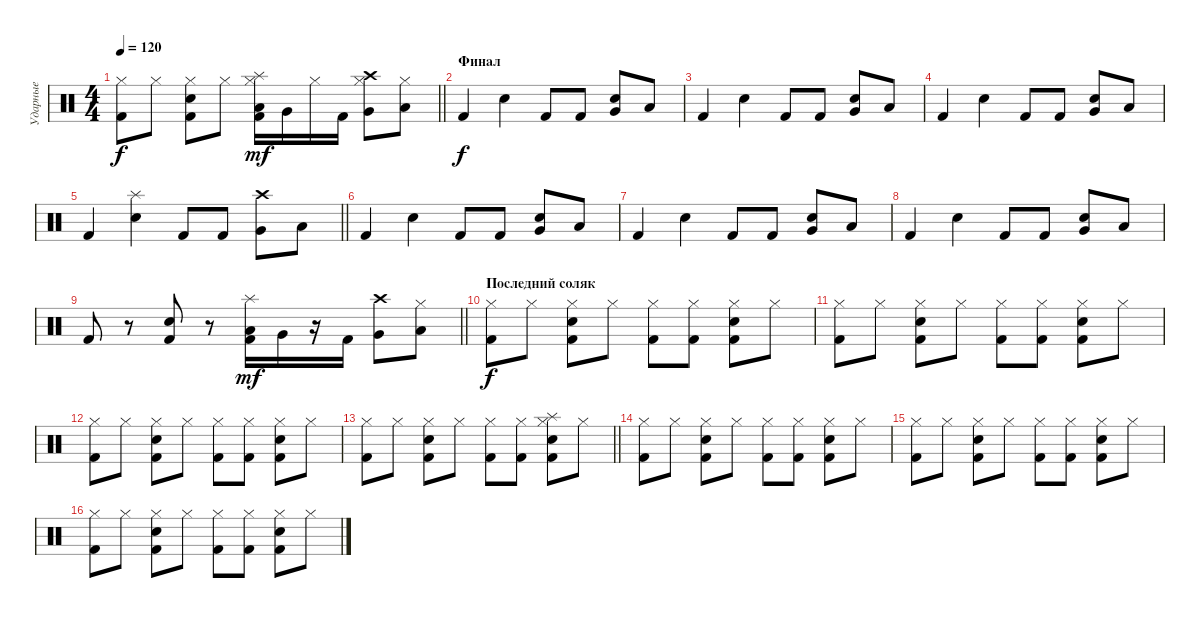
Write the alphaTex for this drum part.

\track ("Ударные" "Ударные") {instrument percussion}
\staff {score}
\articulation defaults
\ts (4 4)
\tempo 120
\clef neutral
\barLineRight lightlight
\ks c
("Hi-Hat (closed)" "Kick (hit) 2").8{dy f} "Hi-Hat (closed)".8 ("Hi-Hat (closed)" "Kick (hit) 2" "Electric Snare (hit)").8 "Hi-Hat (closed)".8 ("Low Tom (hit)" "Hi-Hat (closed)" "Kick (hit) 2" "Splash (hit)").16{dy mf} "Very Low Tom (hit)".16 "Hi-Hat (closed)".16 "Kick (hit) 2".16 ("Very Low Tom (hit)" "Hi-Hat (closed)" "Crash high (hit)").8 ("Low Floor Tom (hit)" "Hi-Hat (closed)").8 |
\section ("" "Финал")
"Kick (hit) 2".4{dy f} "Electric Snare (hit)".4 "Kick (hit) 2".8 "Kick (hit) 2".8 ("Electric Snare (hit)" "Very Low Tom (hit)").8 "Low Floor Tom (hit)".8 |
"Kick (hit) 2".4 "Electric Snare (hit)".4 "Kick (hit) 2".8 "Kick (hit) 2".8 ("Electric Snare (hit)" "Very Low Tom (hit)").8 "Low Floor Tom (hit)".8 |
"Kick (hit) 2".4 "Electric Snare (hit)".4 "Kick (hit) 2".8 "Kick (hit) 2".8 ("Electric Snare (hit)" "Very Low Tom (hit)").8 "Low Floor Tom (hit)".8 |
\barLineRight lightlight "Kick (hit) 2".4
("Electric Snare (hit)" "Splash (hit)").4 "Kick (hit) 2".8 "Kick (hit) 2".8 ("Very Low Tom (hit)" "Crash high (hit)").8 "Low Floor Tom (hit)".8 |
"Kick (hit) 2".4 "Electric Snare (hit)".4 "Kick (hit) 2".8 "Kick (hit) 2".8 ("Electric Snare (hit)" "Very Low Tom (hit)").8 "Low Floor Tom (hit)".8 |
"Kick (hit) 2".4 "Electric Snare (hit)".4 "Kick (hit) 2".8 "Kick (hit) 2".8 ("Electric Snare (hit)" "Very Low Tom (hit)").8 "Low Floor Tom (hit)".8 |
"Kick (hit) 2".4 "Electric Snare (hit)".4 "Kick (hit) 2".8 "Kick (hit) 2".8 ("Electric Snare (hit)" "Very Low Tom (hit)").8 "Low Floor Tom (hit)".8 |
\barLineRight lightlight "Kick (hit) 2".8
r.8 ("Kick (hit) 2" "Electric Snare (hit)").8 r.8 ("Low Tom (hit)" "Kick (hit) 2" "Splash (hit)").16{dy mf} "Very Low Tom (hit)".16 r.16 "Kick (hit) 2".16 ("Very Low Tom (hit)" "Crash high (hit)").8 ("Low Floor Tom (hit)" "Hi-Hat (closed)").8 |
\section ("" "Последний соляк")
("Hi-Hat (closed)" "Kick (hit) 2").8{dy f} "Hi-Hat (closed)".8 ("Hi-Hat (closed)" "Kick (hit) 2" "Electric Snare (hit)").8 "Hi-Hat (closed)".8 ("Hi-Hat (closed)" "Kick (hit) 2").8 ("Hi-Hat (closed)" "Kick (hit) 2").8 ("Hi-Hat (closed)" "Kick (hit) 2" "Electric Snare (hit)").8 "Hi-Hat (closed)".8 |
("Hi-Hat (closed)" "Kick (hit) 2").8 "Hi-Hat (closed)".8 ("Hi-Hat (closed)" "Kick (hit) 2" "Electric Snare (hit)").8 "Hi-Hat (closed)".8 ("Hi-Hat (closed)" "Kick (hit) 2").8 ("Hi-Hat (closed)" "Kick (hit) 2").8 ("Hi-Hat (closed)" "Kick (hit) 2" "Electric Snare (hit)").8 "Hi-Hat (closed)".8 |
("Hi-Hat (closed)" "Kick (hit) 2").8 "Hi-Hat (closed)".8 ("Hi-Hat (closed)" "Kick (hit) 2" "Electric Snare (hit)").8 "Hi-Hat (closed)".8 ("Hi-Hat (closed)" "Kick (hit) 2").8 ("Hi-Hat (closed)" "Kick (hit) 2").8 ("Hi-Hat (closed)" "Kick (hit) 2" "Electric Snare (hit)").8 "Hi-Hat (closed)".8 |
\barLineRight lightlight
("Hi-Hat (closed)" "Kick (hit) 2").8 "Hi-Hat (closed)".8 ("Hi-Hat (closed)" "Kick (hit) 2" "Electric Snare (hit)").8 "Hi-Hat (closed)".8 ("Hi-Hat (closed)" "Kick (hit) 2").8 ("Hi-Hat (closed)" "Kick (hit) 2").8 ("Hi-Hat (closed)" "Kick (hit) 2" "Electric Snare (hit)" "Splash (hit)").8 "Hi-Hat (closed)".8 |
("Hi-Hat (closed)" "Kick (hit) 2").8 "Hi-Hat (closed)".8 ("Hi-Hat (closed)" "Kick (hit) 2" "Electric Snare (hit)").8 "Hi-Hat (closed)".8 ("Hi-Hat (closed)" "Kick (hit) 2").8 ("Hi-Hat (closed)" "Kick (hit) 2").8 ("Hi-Hat (closed)" "Kick (hit) 2" "Electric Snare (hit)").8 "Hi-Hat (closed)".8 |
("Hi-Hat (closed)" "Kick (hit) 2").8 "Hi-Hat (closed)".8 ("Hi-Hat (closed)" "Kick (hit) 2" "Electric Snare (hit)").8 "Hi-Hat (closed)".8 ("Hi-Hat (closed)" "Kick (hit) 2").8 ("Hi-Hat (closed)" "Kick (hit) 2").8 ("Hi-Hat (closed)" "Kick (hit) 2" "Electric Snare (hit)").8 "Hi-Hat (closed)".8 |
("Hi-Hat (closed)" "Kick (hit) 2").8 "Hi-Hat (closed)".8 ("Hi-Hat (closed)" "Kick (hit) 2" "Electric Snare (hit)").8 "Hi-Hat (closed)".8 ("Hi-Hat (closed)" "Kick (hit) 2").8 ("Hi-Hat (closed)" "Kick (hit) 2").8 ("Hi-Hat (closed)" "Kick (hit) 2" "Electric Snare (hit)").8 "Hi-Hat (closed)".8
